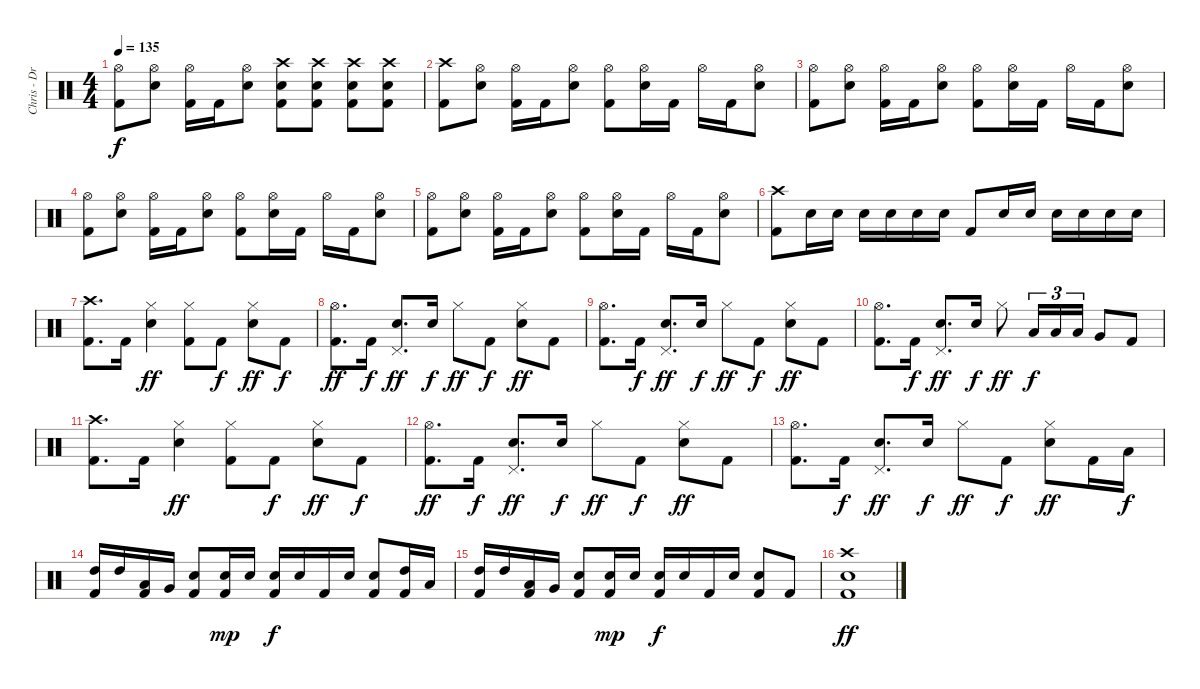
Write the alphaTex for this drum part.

\track ("Chris - Drums" "Chris - Dr") {instrument percussion}
\staff {score}
\articulation defaults
\ts (4 4)
\tempo 135
\clef neutral
\ks c
("Hi-Hat (open)" "Kick (hit) 2").8{dy f} ("Hi-Hat (open)" "Electric Snare (hit)").8 ("Hi-Hat (open)" "Kick (hit) 2").16 "Kick (hit) 2".16 ("Hi-Hat (open)" "Electric Snare (hit)").8 ("Crash high (hit)" "Electric Snare (hit)" "Kick (hit) 2").8 ("Crash high (hit)" "Electric Snare (hit)" "Kick (hit) 2").8 ("Crash high (hit)" "Electric Snare (hit)" "Kick (hit) 2").8 ("Crash high (hit)" "Electric Snare (hit)" "Kick (hit) 2").8 |
("Crash high (hit)" "Kick (hit) 2").8 ("Hi-Hat (open)" "Electric Snare (hit)").8 ("Hi-Hat (open)" "Kick (hit) 2").16 "Kick (hit) 2".16 ("Hi-Hat (open)" "Electric Snare (hit)").8 ("Hi-Hat (open)" "Kick (hit) 2").8 ("Hi-Hat (open)" "Electric Snare (hit)").16 "Kick (hit) 2".16 "Hi-Hat (open)".16 "Kick (hit) 2".16 ("Hi-Hat (open)" "Electric Snare (hit)").8 |
("Hi-Hat (open)" "Kick (hit) 2").8 ("Hi-Hat (open)" "Electric Snare (hit)").8 ("Hi-Hat (open)" "Kick (hit) 2").16 "Kick (hit) 2".16 ("Hi-Hat (open)" "Electric Snare (hit)").8 ("Hi-Hat (open)" "Kick (hit) 2").8 ("Hi-Hat (open)" "Electric Snare (hit)").16 "Kick (hit) 2".16 "Hi-Hat (open)".16 "Kick (hit) 2".16 ("Hi-Hat (open)" "Electric Snare (hit)").8 |
("Hi-Hat (open)" "Kick (hit) 2").8 ("Hi-Hat (open)" "Electric Snare (hit)").8 ("Hi-Hat (open)" "Kick (hit) 2").16 "Kick (hit) 2".16 ("Hi-Hat (open)" "Electric Snare (hit)").8 ("Hi-Hat (open)" "Kick (hit) 2").8 ("Hi-Hat (open)" "Electric Snare (hit)").16 "Kick (hit) 2".16 "Hi-Hat (open)".16 "Kick (hit) 2".16 ("Hi-Hat (open)" "Electric Snare (hit)").8 |
("Hi-Hat (open)" "Kick (hit) 2").8 ("Hi-Hat (open)" "Electric Snare (hit)").8 ("Hi-Hat (open)" "Kick (hit) 2").16 "Kick (hit) 2".16 ("Hi-Hat (open)" "Electric Snare (hit)").8 ("Hi-Hat (open)" "Kick (hit) 2").8 ("Hi-Hat (open)" "Electric Snare (hit)").16 "Kick (hit) 2".16 "Hi-Hat (open)".16 "Kick (hit) 2".16 ("Hi-Hat (open)" "Electric Snare (hit)").8 |
("Crash high (hit)" "Kick (hit) 2").8 "Electric Snare (hit)".16 "Electric Snare (hit)".16 "Electric Snare (hit)".16 "Electric Snare (hit)".16 "Electric Snare (hit)".16 "Electric Snare (hit)".16 "Kick (hit) 2".8 "Electric Snare (hit)".16 "Electric Snare (hit)".16 "Electric Snare (hit)".16 "Electric Snare (hit)".16 "Electric Snare (hit)".16 "Electric Snare (hit)".16 |
("Crash high (hit)" "Kick (hit) 2").8{d} "Kick (hit) 2".16 ("Hi-Hat (closed)" "Electric Snare (hit)").4{dy ff} ("Hi-Hat (closed)" "Kick (hit) 2").8 "Kick (hit) 2".8{dy f} ("Hi-Hat (closed)" "Electric Snare (hit)").8{dy ff} "Kick (hit) 2".8{dy f} |
("Hi-Hat (open)" "Kick (hit) 2").8{d dy ff} "Kick (hit) 2".16{dy f} ("Pedal Hi-Hat (hit)" "Electric Snare (hit)").8{d dy ff} "Electric Snare (hit)".16{dy f} "Hi-Hat (closed)".8{dy ff} "Kick (hit) 2".8{dy f} ("Hi-Hat (closed)" "Electric Snare (hit)").8{dy ff} "Kick (hit) 2".8 |
("Hi-Hat (open)" "Kick (hit) 2").8{d} "Kick (hit) 2".16{dy f} ("Pedal Hi-Hat (hit)" "Electric Snare (hit)").8{d dy ff} "Electric Snare (hit)".16{dy f} "Hi-Hat (closed)".8{dy ff} "Kick (hit) 2".8{dy f} ("Hi-Hat (closed)" "Electric Snare (hit)").8{dy ff} "Kick (hit) 2".8 |
("Hi-Hat (open)" "Kick (hit) 2").8{d} "Kick (hit) 2".16{dy f} ("Pedal Hi-Hat (hit)" "Electric Snare (hit)").8{d dy ff} "Electric Snare (hit)".16{dy f} "Hi-Hat (closed)".8{dy ff} "Low Tom (hit)".16{tu (3 2) dy f} "Low Tom (hit)".16{tu (3 2)} "Low Tom (hit)".16{tu (3 2)} "Very Low Tom (hit)".8 "Kick (hit) 2".8 |
("Crash high (hit)" "Kick (hit) 2").8{d} "Kick (hit) 2".16 ("Hi-Hat (closed)" "Electric Snare (hit)").4{dy ff} ("Hi-Hat (closed)" "Kick (hit) 2").8 "Kick (hit) 2".8{dy f} ("Hi-Hat (closed)" "Electric Snare (hit)").8{dy ff} "Kick (hit) 2".8{dy f} |
("Hi-Hat (open)" "Kick (hit) 2").8{d dy ff} "Kick (hit) 2".16{dy f} ("Pedal Hi-Hat (hit)" "Electric Snare (hit)").8{d dy ff} "Electric Snare (hit)".16{dy f} "Hi-Hat (closed)".8{dy ff} "Kick (hit) 2".8{dy f} ("Hi-Hat (closed)" "Electric Snare (hit)").8{dy ff} "Kick (hit) 2".8 |
("Hi-Hat (open)" "Kick (hit) 2").8{d} "Kick (hit) 2".16{dy f} ("Pedal Hi-Hat (hit)" "Electric Snare (hit)").8{d dy ff} "Electric Snare (hit)".16{dy f} "Hi-Hat (closed)".8{dy ff} "Kick (hit) 2".8{dy f} ("Hi-Hat (closed)" "Electric Snare (hit)").8{dy ff} "Kick (hit) 2".16 "Low Tom (hit)".16{dy f} |
("High Tom (hit)" "Kick (hit) 2").16 "High Tom (hit)".16 ("Low Tom (hit)" "Kick (hit) 2").16 "Very Low Tom (hit)".16 ("Electric Snare (hit)" "Kick (hit) 2").8 ("Electric Snare (hit)" "Kick (hit) 2").16{dy mp} "Electric Snare (hit)".16 ("Electric Snare (hit)" "Kick (hit) 2").16{dy f} "Electric Snare (hit)".16 "Kick (hit) 2".16 "Electric Snare (hit)".16 ("Electric Snare (hit)" "Kick (hit) 2").8 ("High Tom (hit)" "Kick (hit) 2").16 "Low Tom (hit)".16 |
("High Tom (hit)" "Kick (hit) 2").16 "High Tom (hit)".16 ("Low Tom (hit)" "Kick (hit) 2").16 "Very Low Tom (hit)".16 ("Electric Snare (hit)" "Kick (hit) 2").8 ("Electric Snare (hit)" "Kick (hit) 2").16{dy mp} "Electric Snare (hit)".16 ("Electric Snare (hit)" "Kick (hit) 2").16{dy f} "Electric Snare (hit)".16 "Kick (hit) 2".16 "Electric Snare (hit)".16 ("Electric Snare (hit)" "Kick (hit) 2").8 "Kick (hit) 2".8 |
("Crash high (hit)" "Electric Snare (hit)" "Kick (hit) 2").1{dy ff}
